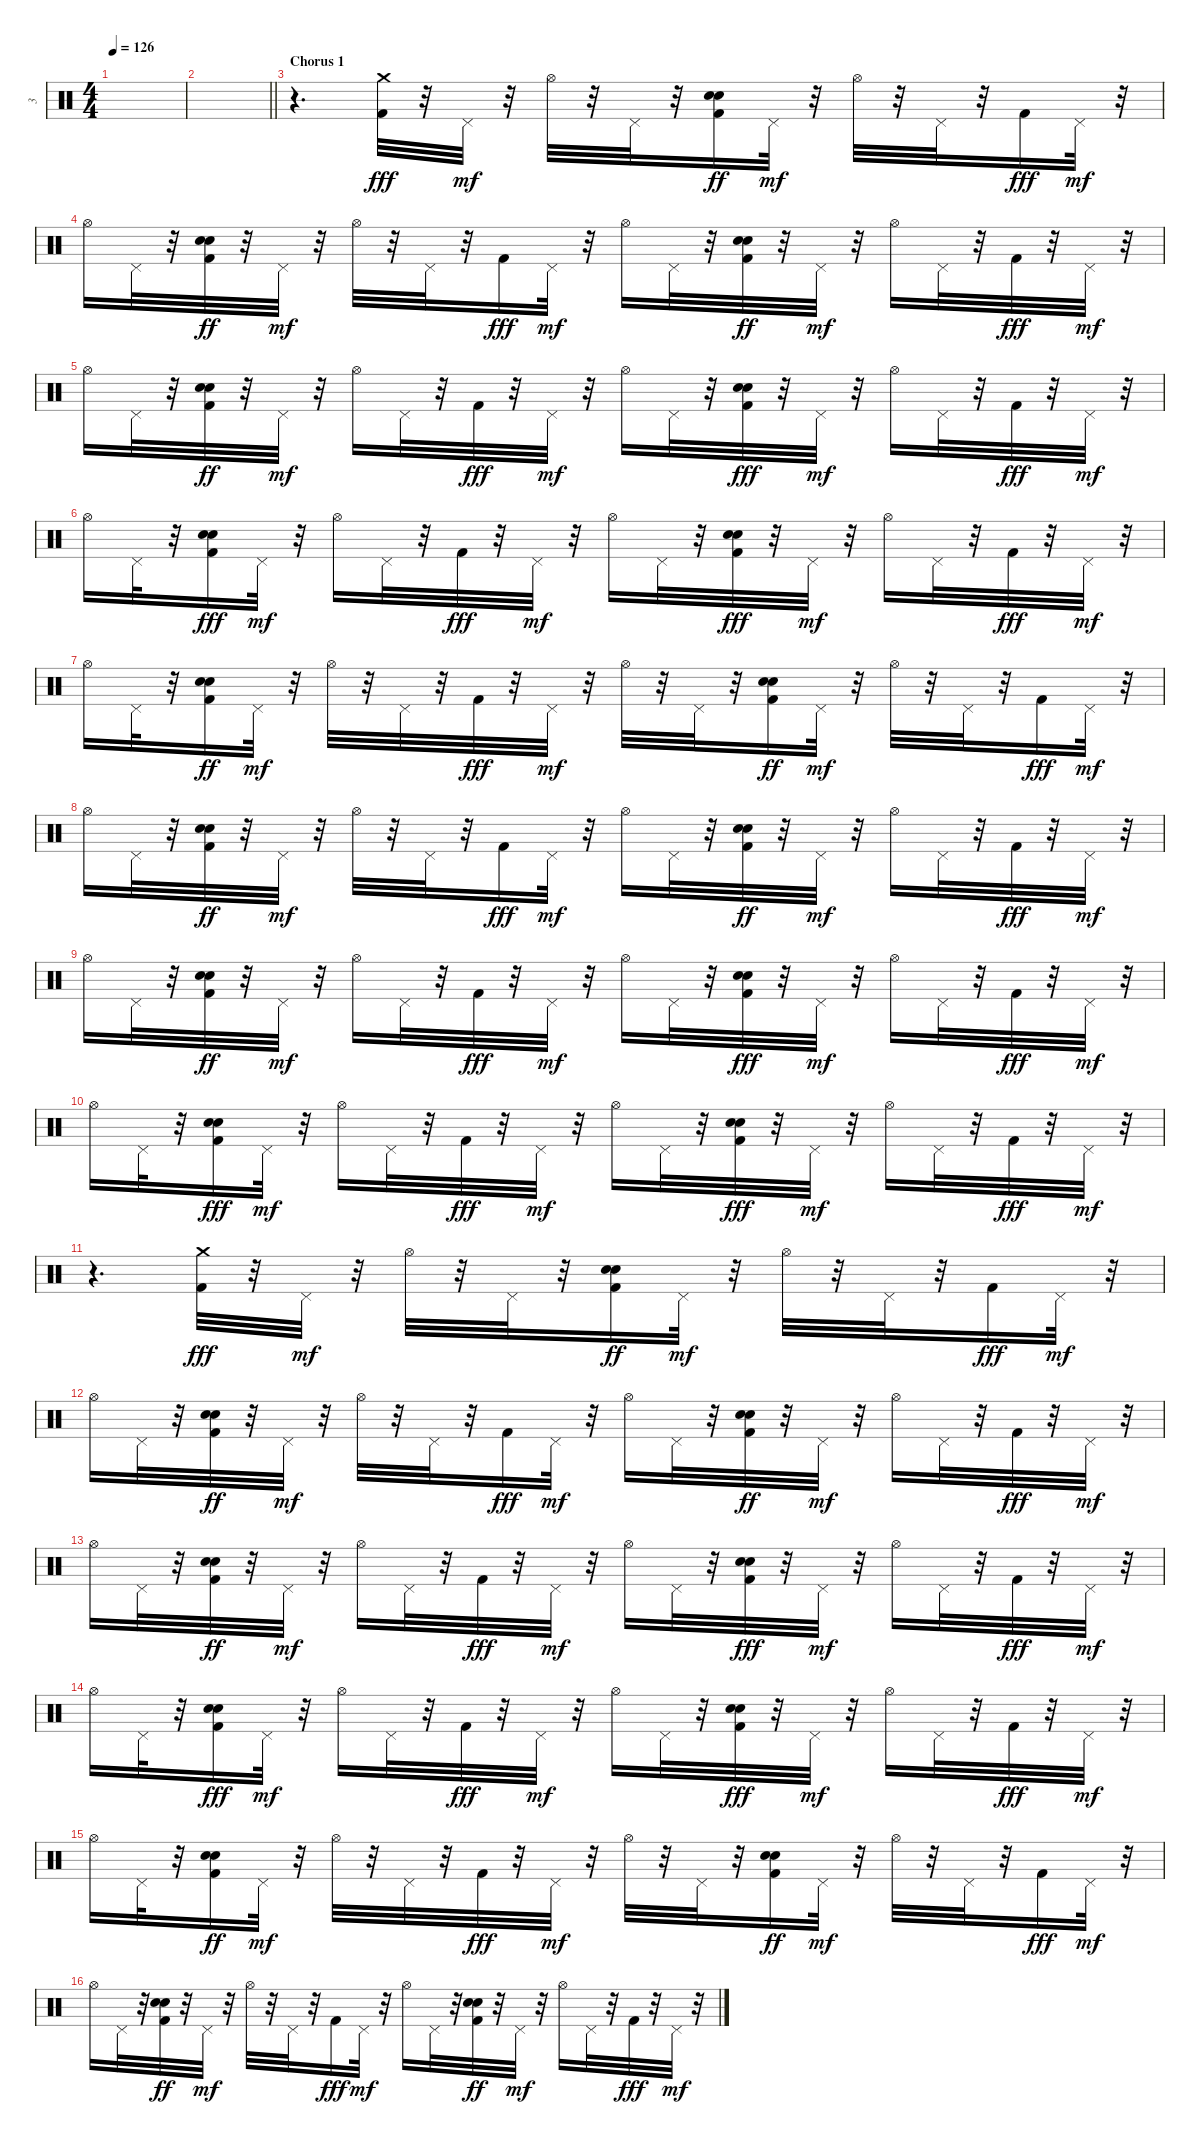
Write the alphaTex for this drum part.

\track ("3" "3") {instrument percussion}
\staff {score}
\articulation defaults
\ts (4 4)
\tempo 126
\clef neutral
\ks c
|
\barLineRight lightlight
|
\section ("" "Chorus 1")
r.4{d} ("Kick (hit) 2" "Crash medium (hit)").32{dy fff} r.32 "Pedal Hi-Hat (hit)".32{dy mf} r.32 "Hi-Hat (open)".32 r.32 "Pedal Hi-Hat (hit)".32 r.32 ("Kick (hit) 2" "Snare (hit) 2" "Hand Clap (hit)").16{dy ff} "Pedal Hi-Hat (hit)".32{dy mf} r.32 "Hi-Hat (open)".32 r.32 "Pedal Hi-Hat (hit)".32 r.32 "Kick (hit) 2".16{dy fff} "Pedal Hi-Hat (hit)".32{dy mf} r.32 |
"Hi-Hat (open)".16 "Pedal Hi-Hat (hit)".32 r.32 ("Kick (hit) 2" "Snare (hit) 2" "Hand Clap (hit)").32{dy ff} r.32 "Pedal Hi-Hat (hit)".32{dy mf} r.32 "Hi-Hat (open)".32 r.32 "Pedal Hi-Hat (hit)".32 r.32 "Kick (hit) 2".16{dy fff} "Pedal Hi-Hat (hit)".32{dy mf} r.32 "Hi-Hat (open)".16 "Pedal Hi-Hat (hit)".32 r.32 ("Kick (hit) 2" "Snare (hit) 2" "Hand Clap (hit)").32{dy ff} r.32 "Pedal Hi-Hat (hit)".32{dy mf} r.32 "Hi-Hat (open)".16 "Pedal Hi-Hat (hit)".32 r.32 "Kick (hit) 2".32{dy fff} r.32 "Pedal Hi-Hat (hit)".32{dy mf} r.32 |
"Hi-Hat (open)".16 "Pedal Hi-Hat (hit)".32 r.32 ("Kick (hit) 2" "Snare (hit) 2" "Hand Clap (hit)").32{dy ff} r.32 "Pedal Hi-Hat (hit)".32{dy mf} r.32 "Hi-Hat (open)".16 "Pedal Hi-Hat (hit)".32 r.32 "Kick (hit) 2".32{dy fff} r.32 "Pedal Hi-Hat (hit)".32{dy mf} r.32 "Hi-Hat (open)".16 "Pedal Hi-Hat (hit)".32 r.32 ("Kick (hit) 2" "Snare (hit) 2" "Hand Clap (hit)").32{dy fff} r.32 "Pedal Hi-Hat (hit)".32{dy mf} r.32 "Hi-Hat (open)".16 "Pedal Hi-Hat (hit)".32 r.32 "Kick (hit) 2".32{dy fff} r.32 "Pedal Hi-Hat (hit)".32{dy mf} r.32 |
"Hi-Hat (open)".16 "Pedal Hi-Hat (hit)".32 r.32 ("Kick (hit) 2" "Snare (hit) 2" "Hand Clap (hit)").16{dy fff} "Pedal Hi-Hat (hit)".32{dy mf} r.32 "Hi-Hat (open)".16 "Pedal Hi-Hat (hit)".32 r.32 "Kick (hit) 2".32{dy fff} r.32 "Pedal Hi-Hat (hit)".32{dy mf} r.32 "Hi-Hat (open)".16 "Pedal Hi-Hat (hit)".32 r.32 ("Kick (hit) 2" "Snare (hit) 2" "Hand Clap (hit)").32{dy fff} r.32 "Pedal Hi-Hat (hit)".32{dy mf} r.32 "Hi-Hat (open)".16 "Pedal Hi-Hat (hit)".32 r.32 "Kick (hit) 2".32{dy fff} r.32 "Pedal Hi-Hat (hit)".32{dy mf} r.32 |
"Hi-Hat (open)".16 "Pedal Hi-Hat (hit)".32 r.32 ("Kick (hit) 2" "Snare (hit) 2" "Hand Clap (hit)").16{dy ff} "Pedal Hi-Hat (hit)".32{dy mf} r.32 "Hi-Hat (open)".32 r.32 "Pedal Hi-Hat (hit)".32 r.32 "Kick (hit) 2".32{dy fff} r.32 "Pedal Hi-Hat (hit)".32{dy mf} r.32 "Hi-Hat (open)".32 r.32 "Pedal Hi-Hat (hit)".32 r.32 ("Kick (hit) 2" "Snare (hit) 2" "Hand Clap (hit)").16{dy ff} "Pedal Hi-Hat (hit)".32{dy mf} r.32 "Hi-Hat (open)".32 r.32 "Pedal Hi-Hat (hit)".32 r.32 "Kick (hit) 2".16{dy fff} "Pedal Hi-Hat (hit)".32{dy mf} r.32 |
"Hi-Hat (open)".16 "Pedal Hi-Hat (hit)".32 r.32 ("Kick (hit) 2" "Snare (hit) 2" "Hand Clap (hit)").32{dy ff} r.32 "Pedal Hi-Hat (hit)".32{dy mf} r.32 "Hi-Hat (open)".32 r.32 "Pedal Hi-Hat (hit)".32 r.32 "Kick (hit) 2".16{dy fff} "Pedal Hi-Hat (hit)".32{dy mf} r.32 "Hi-Hat (open)".16 "Pedal Hi-Hat (hit)".32 r.32 ("Kick (hit) 2" "Snare (hit) 2" "Hand Clap (hit)").32{dy ff} r.32 "Pedal Hi-Hat (hit)".32{dy mf} r.32 "Hi-Hat (open)".16 "Pedal Hi-Hat (hit)".32 r.32 "Kick (hit) 2".32{dy fff} r.32 "Pedal Hi-Hat (hit)".32{dy mf} r.32 |
"Hi-Hat (open)".16 "Pedal Hi-Hat (hit)".32 r.32 ("Kick (hit) 2" "Snare (hit) 2" "Hand Clap (hit)").32{dy ff} r.32 "Pedal Hi-Hat (hit)".32{dy mf} r.32 "Hi-Hat (open)".16 "Pedal Hi-Hat (hit)".32 r.32 "Kick (hit) 2".32{dy fff} r.32 "Pedal Hi-Hat (hit)".32{dy mf} r.32 "Hi-Hat (open)".16 "Pedal Hi-Hat (hit)".32 r.32 ("Kick (hit) 2" "Snare (hit) 2" "Hand Clap (hit)").32{dy fff} r.32 "Pedal Hi-Hat (hit)".32{dy mf} r.32 "Hi-Hat (open)".16 "Pedal Hi-Hat (hit)".32 r.32 "Kick (hit) 2".32{dy fff} r.32 "Pedal Hi-Hat (hit)".32{dy mf} r.32 |
"Hi-Hat (open)".16 "Pedal Hi-Hat (hit)".32 r.32 ("Kick (hit) 2" "Snare (hit) 2" "Hand Clap (hit)").16{dy fff} "Pedal Hi-Hat (hit)".32{dy mf} r.32 "Hi-Hat (open)".16 "Pedal Hi-Hat (hit)".32 r.32 "Kick (hit) 2".32{dy fff} r.32 "Pedal Hi-Hat (hit)".32{dy mf} r.32 "Hi-Hat (open)".16 "Pedal Hi-Hat (hit)".32 r.32 ("Kick (hit) 2" "Snare (hit) 2" "Hand Clap (hit)").32{dy fff} r.32 "Pedal Hi-Hat (hit)".32{dy mf} r.32 "Hi-Hat (open)".16 "Pedal Hi-Hat (hit)".32 r.32 "Kick (hit) 2".32{dy fff} r.32 "Pedal Hi-Hat (hit)".32{dy mf} r.32 |
r.4{d} ("Kick (hit) 2" "Crash medium (hit)").32{dy fff} r.32 "Pedal Hi-Hat (hit)".32{dy mf} r.32 "Hi-Hat (open)".32 r.32 "Pedal Hi-Hat (hit)".32 r.32 ("Kick (hit) 2" "Snare (hit) 2" "Hand Clap (hit)").16{dy ff} "Pedal Hi-Hat (hit)".32{dy mf} r.32 "Hi-Hat (open)".32 r.32 "Pedal Hi-Hat (hit)".32 r.32 "Kick (hit) 2".16{dy fff} "Pedal Hi-Hat (hit)".32{dy mf} r.32 |
"Hi-Hat (open)".16 "Pedal Hi-Hat (hit)".32 r.32 ("Kick (hit) 2" "Snare (hit) 2" "Hand Clap (hit)").32{dy ff} r.32 "Pedal Hi-Hat (hit)".32{dy mf} r.32 "Hi-Hat (open)".32 r.32 "Pedal Hi-Hat (hit)".32 r.32 "Kick (hit) 2".16{dy fff} "Pedal Hi-Hat (hit)".32{dy mf} r.32 "Hi-Hat (open)".16 "Pedal Hi-Hat (hit)".32 r.32 ("Kick (hit) 2" "Snare (hit) 2" "Hand Clap (hit)").32{dy ff} r.32 "Pedal Hi-Hat (hit)".32{dy mf} r.32 "Hi-Hat (open)".16 "Pedal Hi-Hat (hit)".32 r.32 "Kick (hit) 2".32{dy fff} r.32 "Pedal Hi-Hat (hit)".32{dy mf} r.32 |
"Hi-Hat (open)".16 "Pedal Hi-Hat (hit)".32 r.32 ("Kick (hit) 2" "Snare (hit) 2" "Hand Clap (hit)").32{dy ff} r.32 "Pedal Hi-Hat (hit)".32{dy mf} r.32 "Hi-Hat (open)".16 "Pedal Hi-Hat (hit)".32 r.32 "Kick (hit) 2".32{dy fff} r.32 "Pedal Hi-Hat (hit)".32{dy mf} r.32 "Hi-Hat (open)".16 "Pedal Hi-Hat (hit)".32 r.32 ("Kick (hit) 2" "Snare (hit) 2" "Hand Clap (hit)").32{dy fff} r.32 "Pedal Hi-Hat (hit)".32{dy mf} r.32 "Hi-Hat (open)".16 "Pedal Hi-Hat (hit)".32 r.32 "Kick (hit) 2".32{dy fff} r.32 "Pedal Hi-Hat (hit)".32{dy mf} r.32 |
"Hi-Hat (open)".16 "Pedal Hi-Hat (hit)".32 r.32 ("Kick (hit) 2" "Snare (hit) 2" "Hand Clap (hit)").16{dy fff} "Pedal Hi-Hat (hit)".32{dy mf} r.32 "Hi-Hat (open)".16 "Pedal Hi-Hat (hit)".32 r.32 "Kick (hit) 2".32{dy fff} r.32 "Pedal Hi-Hat (hit)".32{dy mf} r.32 "Hi-Hat (open)".16 "Pedal Hi-Hat (hit)".32 r.32 ("Kick (hit) 2" "Snare (hit) 2" "Hand Clap (hit)").32{dy fff} r.32 "Pedal Hi-Hat (hit)".32{dy mf} r.32 "Hi-Hat (open)".16 "Pedal Hi-Hat (hit)".32 r.32 "Kick (hit) 2".32{dy fff} r.32 "Pedal Hi-Hat (hit)".32{dy mf} r.32 |
"Hi-Hat (open)".16 "Pedal Hi-Hat (hit)".32 r.32 ("Kick (hit) 2" "Snare (hit) 2" "Hand Clap (hit)").16{dy ff} "Pedal Hi-Hat (hit)".32{dy mf} r.32 "Hi-Hat (open)".32 r.32 "Pedal Hi-Hat (hit)".32 r.32 "Kick (hit) 2".32{dy fff} r.32 "Pedal Hi-Hat (hit)".32{dy mf} r.32 "Hi-Hat (open)".32 r.32 "Pedal Hi-Hat (hit)".32 r.32 ("Kick (hit) 2" "Snare (hit) 2" "Hand Clap (hit)").16{dy ff} "Pedal Hi-Hat (hit)".32{dy mf} r.32 "Hi-Hat (open)".32 r.32 "Pedal Hi-Hat (hit)".32 r.32 "Kick (hit) 2".16{dy fff} "Pedal Hi-Hat (hit)".32{dy mf} r.32 |
"Hi-Hat (open)".16 "Pedal Hi-Hat (hit)".32 r.32 ("Kick (hit) 2" "Snare (hit) 2" "Hand Clap (hit)").32{dy ff} r.32 "Pedal Hi-Hat (hit)".32{dy mf} r.32 "Hi-Hat (open)".32 r.32 "Pedal Hi-Hat (hit)".32 r.32 "Kick (hit) 2".16{dy fff} "Pedal Hi-Hat (hit)".32{dy mf} r.32 "Hi-Hat (open)".16 "Pedal Hi-Hat (hit)".32 r.32 ("Kick (hit) 2" "Snare (hit) 2" "Hand Clap (hit)").32{dy ff} r.32 "Pedal Hi-Hat (hit)".32{dy mf} r.32 "Hi-Hat (open)".16 "Pedal Hi-Hat (hit)".32 r.32 "Kick (hit) 2".32{dy fff} r.32 "Pedal Hi-Hat (hit)".32{dy mf} r.32
